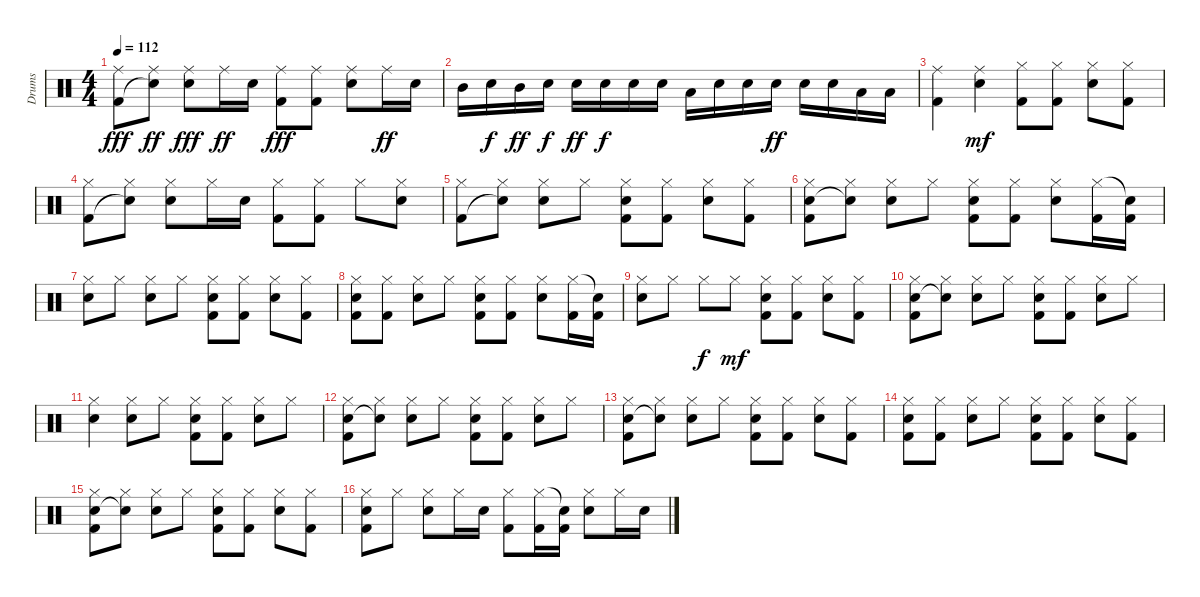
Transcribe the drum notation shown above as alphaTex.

\track ("Drums" "Drums") {instrument percussion}
\staff {score}
\articulation defaults
\ts (4 4)
\tempo 112
\clef neutral
\ks c
("Ride (middle)" "Kick (hit) 2").8{dy fff} ("Ride (middle)" "Snare (hit)"{t}).8{dy ff} ("Ride (middle)" "Electric Snare (hit)").8{dy fff} "Ride (middle)".16{dy ff} "Electric Snare (hit)".16 ("Ride (middle)" "Kick (hit) 2").8{dy fff} ("Ride (middle)" "Kick (hit) 2").8 ("Ride (middle)" "Electric Snare (hit)").8 "Ride (middle)".16{dy ff} "Electric Snare (hit)".16 |
"Mid Tom (hit)".16 "Electric Snare (hit)".16{dy f} "Mid Tom (hit)".16{dy ff} "Electric Snare (hit)".16{dy f} "Electric Snare (hit)".16{dy ff} "Electric Snare (hit)".16{dy f} "Electric Snare (hit)".16 "Electric Snare (hit)".16 "Low Tom (hit)".16 "Electric Snare (hit)".16 "Electric Snare (hit)".16 "Electric Snare (hit)".16{dy ff} "Electric Snare (hit)".16 "Electric Snare (hit)".16 "Low Tom (hit)".16 "Low Tom (hit)".16 |
("Ride (middle)" "Kick (hit) 2").4 ("Ride (middle)" "Electric Snare (hit)").4{dy mf} ("Hi-Hat (closed)" "Kick (hit) 2").8 ("Hi-Hat (closed)" "Kick (hit) 2").8 ("Hi-Hat (closed)" "Electric Snare (hit)").8 ("Hi-Hat (closed)" "Kick (hit) 2").8 |
("Hi-Hat (closed)" "Kick (hit) 2").8 ("Hi-Hat (closed)" "Snare (hit)"{t}).8 ("Hi-Hat (closed)" "Electric Snare (hit)").8 "Hi-Hat (closed)".16 "Electric Snare (hit)".16 ("Hi-Hat (closed)" "Kick (hit) 2").8 ("Hi-Hat (closed)" "Kick (hit) 2").8 "Hi-Hat (closed)".8 ("Hi-Hat (closed)" "Electric Snare (hit)").8 |
("Hi-Hat (closed)" "Kick (hit) 2").8 ("Hi-Hat (closed)" "Snare (hit)"{t}).8 ("Hi-Hat (closed)" "Electric Snare (hit)").8 "Hi-Hat (closed)".8 ("Hi-Hat (closed)" "Electric Snare (hit)" "Kick (hit) 2").8 ("Hi-Hat (closed)" "Kick (hit) 2").8 ("Hi-Hat (closed)" "Electric Snare (hit)").8 ("Hi-Hat (closed)" "Kick (hit) 2").8 |
("Hi-Hat (closed)" "Electric Snare (hit)" "Kick (hit) 2").8 ("Hi-Hat (closed)" "Snare (hit)"{t}).8 ("Hi-Hat (closed)" "Electric Snare (hit)").8 "Hi-Hat (closed)".8 ("Hi-Hat (closed)" "Electric Snare (hit)" "Kick (hit) 2").8 ("Hi-Hat (closed)" "Kick (hit) 2").8 ("Hi-Hat (closed)" "Electric Snare (hit)").8 ("Hi-Hat (closed)" "Kick (hit) 2").16 ("Snare (hit)"{t} "Kick (hit) 2").16 |
("Hi-Hat (closed)" "Electric Snare (hit)").8 "Hi-Hat (closed)".8 ("Hi-Hat (closed)" "Electric Snare (hit)").8 "Hi-Hat (closed)".8 ("Hi-Hat (closed)" "Electric Snare (hit)" "Kick (hit) 2").8 ("Hi-Hat (closed)" "Kick (hit) 2").8 ("Hi-Hat (closed)" "Electric Snare (hit)").8 ("Hi-Hat (closed)" "Kick (hit) 2").8 |
("Hi-Hat (closed)" "Electric Snare (hit)" "Kick (hit) 2").8 ("Hi-Hat (closed)" "Kick (hit) 2").8 ("Hi-Hat (closed)" "Electric Snare (hit)").8 "Hi-Hat (closed)".8 ("Hi-Hat (closed)" "Electric Snare (hit)" "Kick (hit) 2").8 ("Hi-Hat (closed)" "Kick (hit) 2").8 ("Hi-Hat (closed)" "Electric Snare (hit)").8 ("Hi-Hat (closed)" "Kick (hit) 2").16 ("Snare (hit)"{t} "Kick (hit) 2").16 |
("Hi-Hat (closed)" "Electric Snare (hit)").8 "Hi-Hat (closed)".8 "Hi-Hat (closed)".8{dy f} "Hi-Hat (closed)".8{dy mf} ("Hi-Hat (closed)" "Electric Snare (hit)" "Kick (hit) 2").8 ("Hi-Hat (closed)" "Kick (hit) 2").8 ("Hi-Hat (closed)" "Electric Snare (hit)").8 ("Hi-Hat (closed)" "Kick (hit) 2").8 |
("Hi-Hat (closed)" "Electric Snare (hit)" "Kick (hit) 2").8 ("Hi-Hat (closed)" "Snare (hit)"{t}).8 ("Hi-Hat (closed)" "Electric Snare (hit)").8 "Hi-Hat (closed)".8 ("Hi-Hat (closed)" "Electric Snare (hit)" "Kick (hit) 2").8 ("Hi-Hat (closed)" "Kick (hit) 2").8 ("Hi-Hat (closed)" "Electric Snare (hit)").8 "Hi-Hat (closed)".8 |
("Hi-Hat (closed)" "Electric Snare (hit)").4 ("Hi-Hat (closed)" "Electric Snare (hit)").8 "Hi-Hat (closed)".8 ("Hi-Hat (closed)" "Electric Snare (hit)" "Kick (hit) 2").8 ("Hi-Hat (closed)" "Kick (hit) 2").8 ("Hi-Hat (closed)" "Electric Snare (hit)").8 "Hi-Hat (closed)".8 |
("Hi-Hat (closed)" "Electric Snare (hit)" "Kick (hit) 2").8 ("Hi-Hat (closed)" "Snare (hit)"{t}).8 ("Hi-Hat (closed)" "Electric Snare (hit)").8 "Hi-Hat (closed)".8 ("Hi-Hat (closed)" "Electric Snare (hit)" "Kick (hit) 2").8 ("Hi-Hat (closed)" "Kick (hit) 2").8 ("Hi-Hat (closed)" "Electric Snare (hit)").8 "Hi-Hat (closed)".8 |
("Hi-Hat (closed)" "Electric Snare (hit)" "Kick (hit) 2").8 ("Hi-Hat (closed)" "Snare (hit)"{t}).8 ("Hi-Hat (closed)" "Electric Snare (hit)").8 "Hi-Hat (closed)".8 ("Hi-Hat (closed)" "Electric Snare (hit)" "Kick (hit) 2").8 ("Hi-Hat (closed)" "Kick (hit) 2").8 ("Hi-Hat (closed)" "Electric Snare (hit)").8 ("Hi-Hat (closed)" "Kick (hit) 2").8 |
("Hi-Hat (closed)" "Electric Snare (hit)" "Kick (hit) 2").8 ("Hi-Hat (closed)" "Kick (hit) 2").8 ("Hi-Hat (closed)" "Electric Snare (hit)").8 "Hi-Hat (closed)".8 ("Hi-Hat (closed)" "Electric Snare (hit)" "Kick (hit) 2").8 ("Hi-Hat (closed)" "Kick (hit) 2").8 ("Hi-Hat (closed)" "Electric Snare (hit)").8 ("Hi-Hat (closed)" "Kick (hit) 2").8 |
("Hi-Hat (closed)" "Electric Snare (hit)" "Kick (hit) 2").8 ("Hi-Hat (closed)" "Snare (hit)"{t}).8 ("Hi-Hat (closed)" "Electric Snare (hit)").8 "Hi-Hat (closed)".8 ("Hi-Hat (closed)" "Electric Snare (hit)" "Kick (hit) 2").8 ("Hi-Hat (closed)" "Kick (hit) 2").8 ("Hi-Hat (closed)" "Electric Snare (hit)").8 ("Hi-Hat (closed)" "Kick (hit) 2").8 |
("Hi-Hat (closed)" "Electric Snare (hit)" "Kick (hit) 2").8 "Hi-Hat (closed)".8 ("Hi-Hat (closed)" "Electric Snare (hit)").8 "Hi-Hat (closed)".16 "Electric Snare (hit)".16 ("Hi-Hat (closed)" "Kick (hit) 2").8 ("Hi-Hat (closed)" "Kick (hit) 2").16 ("Snare (hit)"{t} "Kick (hit) 2").16 ("Hi-Hat (closed)" "Electric Snare (hit)").8 "Hi-Hat (closed)".16 "Electric Snare (hit)".16
